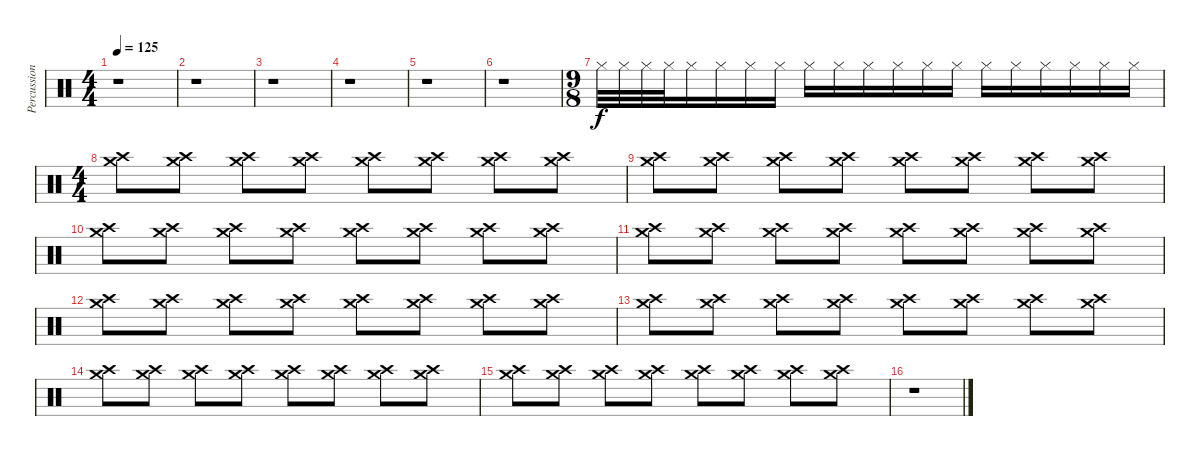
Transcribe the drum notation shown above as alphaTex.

\track ("Percussion" "Percussion") {instrument percussion}
\staff {score}
\articulation defaults
\ts (4 4)
\tempo 125
\clef neutral
\ks c
r.1{dy f} |
r.1 |
r.1 |
r.1 |
r.1 |
r.1 |
\ts (9 8)
"Hi-Hat (closed)".32 "Hi-Hat (closed)".32 "Hi-Hat (closed)".32 "Hi-Hat (closed)".32 "Hi-Hat (closed)".16 "Hi-Hat (closed)".16 "Hi-Hat (closed)".16 "Hi-Hat (closed)".16 "Hi-Hat (closed)".16 "Hi-Hat (closed)".16 "Hi-Hat (closed)".16 "Hi-Hat (closed)".16 "Hi-Hat (closed)".16 "Hi-Hat (closed)".16 "Hi-Hat (closed)".16 "Hi-Hat (closed)".16 "Hi-Hat (closed)".16 "Hi-Hat (closed)".16 "Hi-Hat (closed)".16 "Hi-Hat (closed)".16 |
\ts (4 4)
("Crash high (hit)" "Crash medium (hit)").8 ("Crash high (hit)" "Crash medium (hit)").8 ("Crash high (hit)" "Crash medium (hit)").8 ("Crash high (hit)" "Crash medium (hit)").8 ("Crash high (hit)" "Crash medium (hit)").8 ("Crash high (hit)" "Crash medium (hit)").8 ("Crash high (hit)" "Crash medium (hit)").8 ("Crash high (hit)" "Crash medium (hit)").8 |
("Crash high (hit)" "Crash medium (hit)").8 ("Crash high (hit)" "Crash medium (hit)").8 ("Crash high (hit)" "Crash medium (hit)").8 ("Crash high (hit)" "Crash medium (hit)").8 ("Crash high (hit)" "Crash medium (hit)").8 ("Crash high (hit)" "Crash medium (hit)").8 ("Crash high (hit)" "Crash medium (hit)").8 ("Crash high (hit)" "Crash medium (hit)").8 |
("Crash high (hit)" "Crash medium (hit)").8 ("Crash high (hit)" "Crash medium (hit)").8 ("Crash high (hit)" "Crash medium (hit)").8 ("Crash high (hit)" "Crash medium (hit)").8 ("Crash high (hit)" "Crash medium (hit)").8 ("Crash high (hit)" "Crash medium (hit)").8 ("Crash high (hit)" "Crash medium (hit)").8 ("Crash high (hit)" "Crash medium (hit)").8 |
("Crash high (hit)" "Crash medium (hit)").8 ("Crash high (hit)" "Crash medium (hit)").8 ("Crash high (hit)" "Crash medium (hit)").8 ("Crash high (hit)" "Crash medium (hit)").8 ("Crash high (hit)" "Crash medium (hit)").8 ("Crash high (hit)" "Crash medium (hit)").8 ("Crash high (hit)" "Crash medium (hit)").8 ("Crash high (hit)" "Crash medium (hit)").8 |
("Crash high (hit)" "Crash medium (hit)").8 ("Crash high (hit)" "Crash medium (hit)").8 ("Crash high (hit)" "Crash medium (hit)").8 ("Crash high (hit)" "Crash medium (hit)").8 ("Crash high (hit)" "Crash medium (hit)").8 ("Crash high (hit)" "Crash medium (hit)").8 ("Crash high (hit)" "Crash medium (hit)").8 ("Crash high (hit)" "Crash medium (hit)").8 |
("Crash high (hit)" "Crash medium (hit)").8 ("Crash high (hit)" "Crash medium (hit)").8 ("Crash high (hit)" "Crash medium (hit)").8 ("Crash high (hit)" "Crash medium (hit)").8 ("Crash high (hit)" "Crash medium (hit)").8 ("Crash high (hit)" "Crash medium (hit)").8 ("Crash high (hit)" "Crash medium (hit)").8 ("Crash high (hit)" "Crash medium (hit)").8 |
("Crash high (hit)" "Crash medium (hit)").8 ("Crash high (hit)" "Crash medium (hit)").8 ("Crash high (hit)" "Crash medium (hit)").8 ("Crash high (hit)" "Crash medium (hit)").8 ("Crash high (hit)" "Crash medium (hit)").8 ("Crash high (hit)" "Crash medium (hit)").8 ("Crash high (hit)" "Crash medium (hit)").8 ("Crash high (hit)" "Crash medium (hit)").8 |
("Crash high (hit)" "Crash medium (hit)").8 ("Crash high (hit)" "Crash medium (hit)").8 ("Crash high (hit)" "Crash medium (hit)").8 ("Crash high (hit)" "Crash medium (hit)").8 ("Crash high (hit)" "Crash medium (hit)").8 ("Crash high (hit)" "Crash medium (hit)").8 ("Crash high (hit)" "Crash medium (hit)").8 ("Crash high (hit)" "Crash medium (hit)").8 |
r.1
